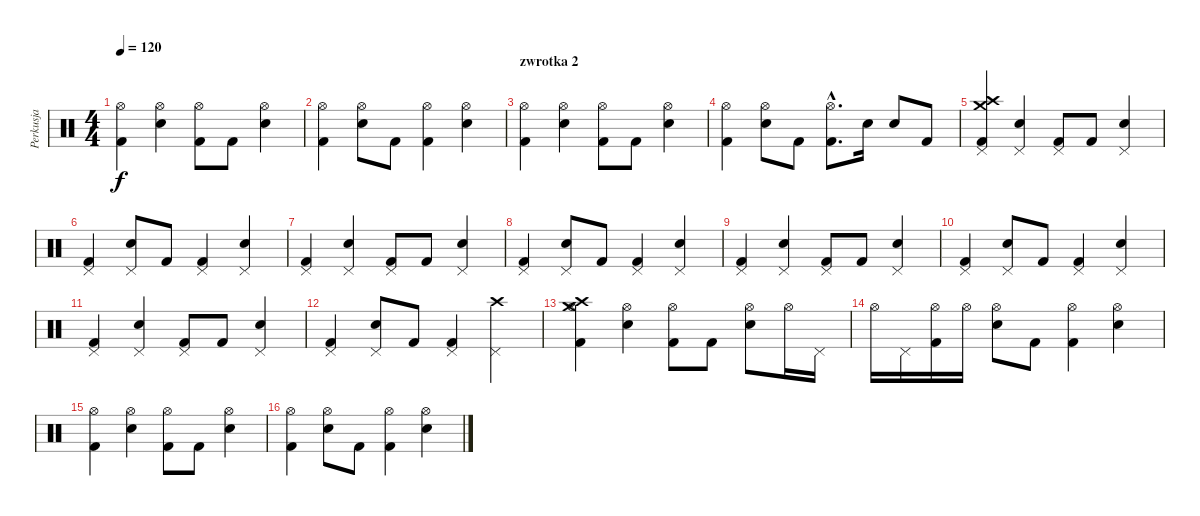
\track ("Perkusja" "Perkusja") {instrument percussion}
\staff {score}
\articulation defaults
\ts (4 4)
\tempo 120
\clef neutral
\ks c
("Kick (hit) 2" "Hi-Hat (open)").4{dy f} ("Snare (hit) 2" "Hi-Hat (open)").4 ("Kick (hit) 2" "Hi-Hat (open)").8 "Kick (hit) 2".8 ("Snare (hit) 2" "Hi-Hat (open)").4 |
("Kick (hit) 2" "Hi-Hat (open)").4 ("Snare (hit) 2" "Hi-Hat (open)").8 "Kick (hit) 2".8 ("Kick (hit) 2" "Hi-Hat (open)").4 ("Snare (hit) 2" "Hi-Hat (open)").4 |
\section ("" "zwrotka 2")
("Kick (hit) 2" "Hi-Hat (open)").4 ("Snare (hit) 2" "Hi-Hat (open)").4 ("Kick (hit) 2" "Hi-Hat (open)").8 "Kick (hit) 2".8 ("Snare (hit) 2" "Hi-Hat (open)").4 |
("Kick (hit) 2" "Hi-Hat (open)").4 ("Snare (hit) 2" "Hi-Hat (open)").8 "Kick (hit) 2".8 ("Kick (hit) 2"{hac} "Hi-Hat (open)"{hac}).8{d} "Electric Snare (hit)".16 "Electric Snare (hit)".8 "Kick (hit) 2".8 |
("Crash high (hit)" "Crash medium (hit)" "Kick (hit) 2" "Pedal Hi-Hat (hit)").4 ("Snare (hit) 2" "Pedal Hi-Hat (hit)").4 ("Kick (hit) 2" "Pedal Hi-Hat (hit)").8 "Kick (hit) 2".8 ("Snare (hit) 2" "Pedal Hi-Hat (hit)").4 |
("Kick (hit) 2" "Pedal Hi-Hat (hit)").4 ("Snare (hit) 2" "Pedal Hi-Hat (hit)").8 "Kick (hit) 2".8 ("Kick (hit) 2" "Pedal Hi-Hat (hit)").4 ("Snare (hit) 2" "Pedal Hi-Hat (hit)").4 |
("Kick (hit) 2" "Pedal Hi-Hat (hit)").4 ("Snare (hit) 2" "Pedal Hi-Hat (hit)").4 ("Kick (hit) 2" "Pedal Hi-Hat (hit)").8 "Kick (hit) 2".8 ("Snare (hit) 2" "Pedal Hi-Hat (hit)").4 |
("Kick (hit) 2" "Pedal Hi-Hat (hit)").4 ("Snare (hit) 2" "Pedal Hi-Hat (hit)").8 "Kick (hit) 2".8 ("Kick (hit) 2" "Pedal Hi-Hat (hit)").4 ("Snare (hit) 2" "Pedal Hi-Hat (hit)").4 |
("Kick (hit) 2" "Pedal Hi-Hat (hit)").4 ("Snare (hit) 2" "Pedal Hi-Hat (hit)").4 ("Kick (hit) 2" "Pedal Hi-Hat (hit)").8 "Kick (hit) 2".8 ("Snare (hit) 2" "Pedal Hi-Hat (hit)").4 |
("Kick (hit) 2" "Pedal Hi-Hat (hit)").4 ("Snare (hit) 2" "Pedal Hi-Hat (hit)").8 "Kick (hit) 2".8 ("Kick (hit) 2" "Pedal Hi-Hat (hit)").4 ("Snare (hit) 2" "Pedal Hi-Hat (hit)").4 |
("Kick (hit) 2" "Pedal Hi-Hat (hit)").4 ("Snare (hit) 2" "Pedal Hi-Hat (hit)").4 ("Kick (hit) 2" "Pedal Hi-Hat (hit)").8 "Kick (hit) 2".8 ("Snare (hit) 2" "Pedal Hi-Hat (hit)").4 |
("Kick (hit) 2" "Pedal Hi-Hat (hit)").4 ("Snare (hit) 2" "Pedal Hi-Hat (hit)").8 "Kick (hit) 2".8 ("Kick (hit) 2" "Pedal Hi-Hat (hit)").4 ("Crash high (hit)" "Pedal Hi-Hat (hit)").4 |
("Crash high (hit)" "Crash medium (hit)" "Kick (hit) 2" "Hi-Hat (open)").4 ("Snare (hit) 2" "Hi-Hat (open)").4 ("Kick (hit) 2" "Hi-Hat (open)").8 "Kick (hit) 2".8 ("Snare (hit) 2" "Hi-Hat (open)").8 "Hi-Hat (open)".16 "Pedal Hi-Hat (hit)".16 |
"Hi-Hat (open)".16 "Pedal Hi-Hat (hit)".16 ("Kick (hit) 2" "Hi-Hat (open)").16 "Hi-Hat (open)".16 ("Snare (hit) 2" "Hi-Hat (open)").8 "Kick (hit) 2".8 ("Kick (hit) 2" "Hi-Hat (open)").4 ("Snare (hit) 2" "Hi-Hat (open)").4 |
("Kick (hit) 2" "Hi-Hat (open)").4 ("Snare (hit) 2" "Hi-Hat (open)").4 ("Kick (hit) 2" "Hi-Hat (open)").8 "Kick (hit) 2".8 ("Snare (hit) 2" "Hi-Hat (open)").4 |
("Kick (hit) 2" "Hi-Hat (open)").4 ("Snare (hit) 2" "Hi-Hat (open)").8 "Kick (hit) 2".8 ("Kick (hit) 2" "Hi-Hat (open)").4 ("Snare (hit) 2" "Hi-Hat (open)").4
